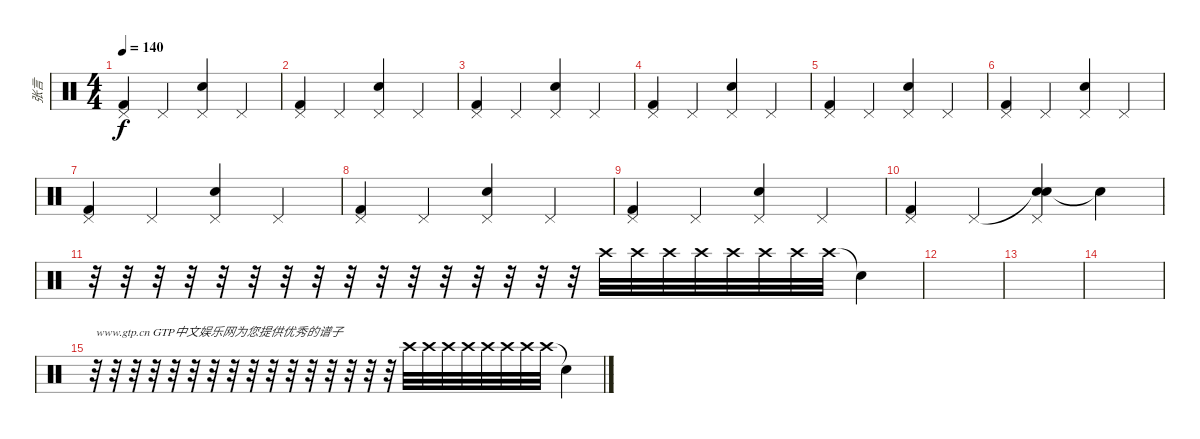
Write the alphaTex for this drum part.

\track ("张言" "张言") {instrument percussion}
\staff {score}
\articulation defaults
\ts (4 4)
\tempo 140
\clef neutral
\ks c
("Kick (hit) 2" "Pedal Hi-Hat (hit)").4{dy f} "Pedal Hi-Hat (hit)".4 ("Snare (hit) 2" "Pedal Hi-Hat (hit)").4 "Pedal Hi-Hat (hit)".4 |
("Kick (hit) 2" "Pedal Hi-Hat (hit)").4 "Pedal Hi-Hat (hit)".4 ("Snare (hit) 2" "Pedal Hi-Hat (hit)").4 "Pedal Hi-Hat (hit)".4 |
("Kick (hit) 2" "Pedal Hi-Hat (hit)").4 "Pedal Hi-Hat (hit)".4 ("Snare (hit) 2" "Pedal Hi-Hat (hit)").4 "Pedal Hi-Hat (hit)".4 |
("Kick (hit) 2" "Pedal Hi-Hat (hit)").4 "Pedal Hi-Hat (hit)".4 ("Snare (hit) 2" "Pedal Hi-Hat (hit)").4 "Pedal Hi-Hat (hit)".4 |
("Kick (hit) 2" "Pedal Hi-Hat (hit)").4 "Pedal Hi-Hat (hit)".4 ("Snare (hit) 2" "Pedal Hi-Hat (hit)").4 "Pedal Hi-Hat (hit)".4 |
("Kick (hit) 2" "Pedal Hi-Hat (hit)").4 "Pedal Hi-Hat (hit)".4 ("Snare (hit) 2" "Pedal Hi-Hat (hit)").4 "Pedal Hi-Hat (hit)".4 |
("Kick (hit) 2" "Pedal Hi-Hat (hit)").4 "Pedal Hi-Hat (hit)".4 ("Snare (hit) 2" "Pedal Hi-Hat (hit)").4 "Pedal Hi-Hat (hit)".4 |
("Kick (hit) 2" "Pedal Hi-Hat (hit)").4 "Pedal Hi-Hat (hit)".4 ("Snare (hit) 2" "Pedal Hi-Hat (hit)").4 "Pedal Hi-Hat (hit)".4 |
("Kick (hit) 2" "Pedal Hi-Hat (hit)").4 "Pedal Hi-Hat (hit)".4 ("Snare (hit) 2" "Pedal Hi-Hat (hit)").4 "Pedal Hi-Hat (hit)".4 |
("Kick (hit) 2" "Pedal Hi-Hat (hit)").4 "Pedal Hi-Hat (hit)".4 ("Snare (hit)"{t} "Snare (hit) 2" "Pedal Hi-Hat (hit)").4 "Snare (hit)"{t}.4 |
r.32 r.32 r.32 r.32 r.32 r.32 r.32 r.32 r.32 r.32 r.32 r.32 r.32 r.32 r.32 r.32 "Crash high (hit)".32 "Crash high (hit)".32 "Crash high (hit)".32 "Crash high (hit)".32 "Crash high (hit)".32 "Crash high (hit)".32 "Crash high (hit)".32 "Crash high (hit)".32 "Snare (hit)"{t}.4 |
|
|
|
r.32{txt "www.gtp.cn GTP中文娱乐网为您提供优秀的谱子"} r.32 r.32 r.32 r.32 r.32 r.32 r.32 r.32 r.32 r.32 r.32 r.32 r.32 r.32 r.32 "Crash high (hit)".32 "Crash high (hit)".32 "Crash high (hit)".32 "Crash high (hit)".32 "Crash high (hit)".32 "Crash high (hit)".32 "Crash high (hit)".32 "Crash high (hit)".32 "Snare (hit)"{t}.4
